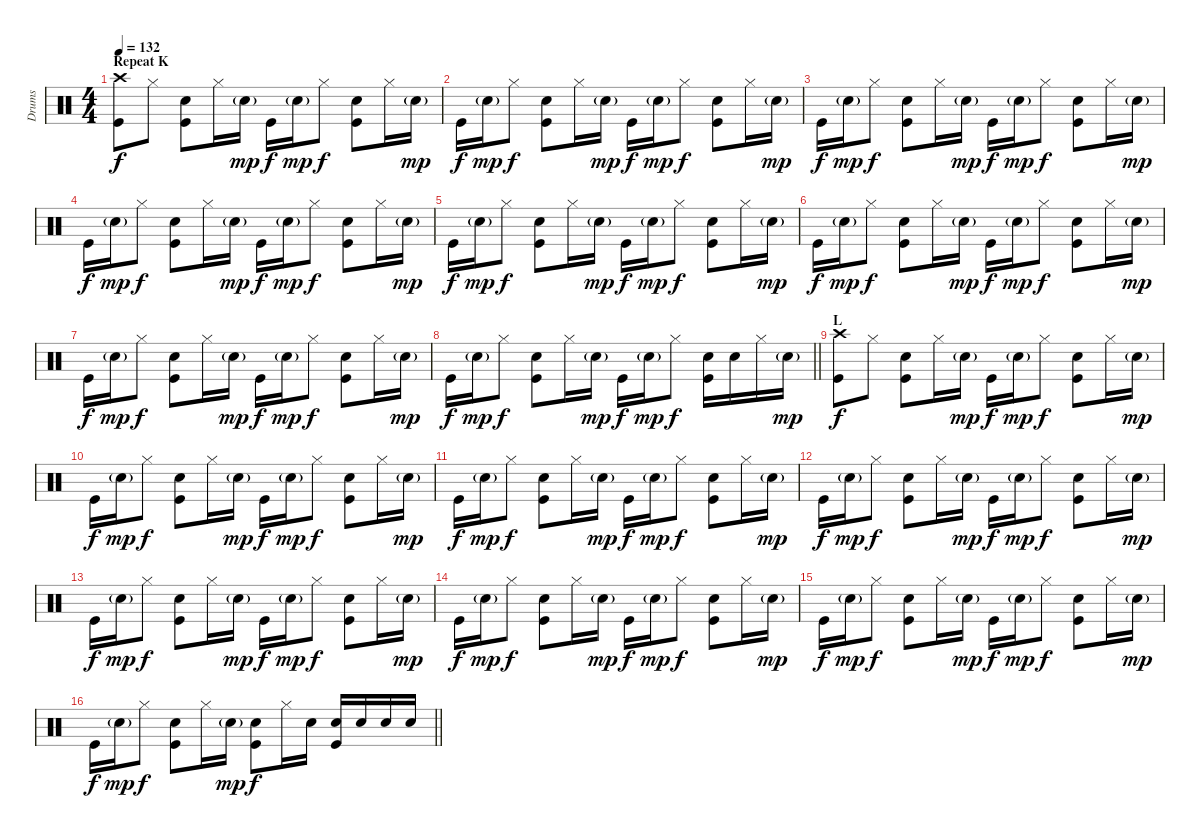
\track ("Drums" "Drums") {instrument percussion}
\staff {score}
\articulation defaults
\ts (4 4)
\section ("" "Repeat K")
\tempo 132
\clef neutral
\ks c
("Crash high (hit)" "Kick (hit)").8{dy f} "Hi-Hat (closed)".8 ("Electric Snare (hit)" "Kick (hit)").8 "Hi-Hat (closed)".16 "Electric Snare (hit)"{g}.16{dy mp} "Kick (hit)".16{dy f} "Electric Snare (hit)"{g}.16{dy mp} "Hi-Hat (closed)".8{dy f} ("Electric Snare (hit)" "Kick (hit)").8 "Hi-Hat (closed)".16 "Electric Snare (hit)"{g}.16{dy mp} |
"Kick (hit)".16{dy f} "Electric Snare (hit)"{g}.16{dy mp} "Hi-Hat (closed)".8{dy f} ("Electric Snare (hit)" "Kick (hit)").8 "Hi-Hat (closed)".16 "Electric Snare (hit)"{g}.16{dy mp} "Kick (hit)".16{dy f} "Electric Snare (hit)"{g}.16{dy mp} "Hi-Hat (closed)".8{dy f} ("Electric Snare (hit)" "Kick (hit)").8 "Hi-Hat (closed)".16 "Electric Snare (hit)"{g}.16{dy mp} |
"Kick (hit)".16{dy f} "Electric Snare (hit)"{g}.16{dy mp} "Hi-Hat (closed)".8{dy f} ("Electric Snare (hit)" "Kick (hit)").8 "Hi-Hat (closed)".16 "Electric Snare (hit)"{g}.16{dy mp} "Kick (hit)".16{dy f} "Electric Snare (hit)"{g}.16{dy mp} "Hi-Hat (closed)".8{dy f} ("Electric Snare (hit)" "Kick (hit)").8 "Hi-Hat (closed)".16 "Electric Snare (hit)"{g}.16{dy mp} |
"Kick (hit)".16{dy f} "Electric Snare (hit)"{g}.16{dy mp} "Hi-Hat (closed)".8{dy f} ("Electric Snare (hit)" "Kick (hit)").8 "Hi-Hat (closed)".16 "Electric Snare (hit)"{g}.16{dy mp} "Kick (hit)".16{dy f} "Electric Snare (hit)"{g}.16{dy mp} "Hi-Hat (closed)".8{dy f} ("Electric Snare (hit)" "Kick (hit)").8 "Hi-Hat (closed)".16 "Electric Snare (hit)"{g}.16{dy mp} |
"Kick (hit)".16{dy f} "Electric Snare (hit)"{g}.16{dy mp} "Hi-Hat (closed)".8{dy f} ("Electric Snare (hit)" "Kick (hit)").8 "Hi-Hat (closed)".16 "Electric Snare (hit)"{g}.16{dy mp} "Kick (hit)".16{dy f} "Electric Snare (hit)"{g}.16{dy mp} "Hi-Hat (closed)".8{dy f} ("Electric Snare (hit)" "Kick (hit)").8 "Hi-Hat (closed)".16 "Electric Snare (hit)"{g}.16{dy mp} |
"Kick (hit)".16{dy f} "Electric Snare (hit)"{g}.16{dy mp} "Hi-Hat (closed)".8{dy f} ("Electric Snare (hit)" "Kick (hit)").8 "Hi-Hat (closed)".16 "Electric Snare (hit)"{g}.16{dy mp} "Kick (hit)".16{dy f} "Electric Snare (hit)"{g}.16{dy mp} "Hi-Hat (closed)".8{dy f} ("Electric Snare (hit)" "Kick (hit)").8 "Hi-Hat (closed)".16 "Electric Snare (hit)"{g}.16{dy mp} |
"Kick (hit)".16{dy f} "Electric Snare (hit)"{g}.16{dy mp} "Hi-Hat (closed)".8{dy f} ("Electric Snare (hit)" "Kick (hit)").8 "Hi-Hat (closed)".16 "Electric Snare (hit)"{g}.16{dy mp} "Kick (hit)".16{dy f} "Electric Snare (hit)"{g}.16{dy mp} "Hi-Hat (closed)".8{dy f} ("Electric Snare (hit)" "Kick (hit)").8 "Hi-Hat (closed)".16 "Electric Snare (hit)"{g}.16{dy mp} |
\barLineRight lightlight "Kick (hit)".16{dy f} "Electric Snare (hit)"{g}.16{dy mp} "Hi-Hat (closed)".8{dy f}
("Electric Snare (hit)" "Kick (hit)").8 "Hi-Hat (closed)".16 "Electric Snare (hit)"{g}.16{dy mp} "Kick (hit)".16{dy f} "Electric Snare (hit)"{g}.16{dy mp} "Hi-Hat (closed)".8{dy f} ("Electric Snare (hit)" "Kick (hit)").16 "Electric Snare (hit)".16 "Hi-Hat (closed)".16 "Electric Snare (hit)"{g}.16{dy mp} |
\section ("" "L")
("Crash high (hit)" "Kick (hit)").8{dy f} "Hi-Hat (closed)".8 ("Electric Snare (hit)" "Kick (hit)").8 "Hi-Hat (closed)".16 "Electric Snare (hit)"{g}.16{dy mp} "Kick (hit)".16{dy f} "Electric Snare (hit)"{g}.16{dy mp} "Hi-Hat (closed)".8{dy f} ("Electric Snare (hit)" "Kick (hit)").8 "Hi-Hat (closed)".16 "Electric Snare (hit)"{g}.16{dy mp} |
"Kick (hit)".16{dy f} "Electric Snare (hit)"{g}.16{dy mp} "Hi-Hat (closed)".8{dy f} ("Electric Snare (hit)" "Kick (hit)").8 "Hi-Hat (closed)".16 "Electric Snare (hit)"{g}.16{dy mp} "Kick (hit)".16{dy f} "Electric Snare (hit)"{g}.16{dy mp} "Hi-Hat (closed)".8{dy f} ("Electric Snare (hit)" "Kick (hit)").8 "Hi-Hat (closed)".16 "Electric Snare (hit)"{g}.16{dy mp} |
"Kick (hit)".16{dy f} "Electric Snare (hit)"{g}.16{dy mp} "Hi-Hat (closed)".8{dy f} ("Electric Snare (hit)" "Kick (hit)").8 "Hi-Hat (closed)".16 "Electric Snare (hit)"{g}.16{dy mp} "Kick (hit)".16{dy f} "Electric Snare (hit)"{g}.16{dy mp} "Hi-Hat (closed)".8{dy f} ("Electric Snare (hit)" "Kick (hit)").8 "Hi-Hat (closed)".16 "Electric Snare (hit)"{g}.16{dy mp} |
"Kick (hit)".16{dy f} "Electric Snare (hit)"{g}.16{dy mp} "Hi-Hat (closed)".8{dy f} ("Electric Snare (hit)" "Kick (hit)").8 "Hi-Hat (closed)".16 "Electric Snare (hit)"{g}.16{dy mp} "Kick (hit)".16{dy f} "Electric Snare (hit)"{g}.16{dy mp} "Hi-Hat (closed)".8{dy f} ("Electric Snare (hit)" "Kick (hit)").8 "Hi-Hat (closed)".16 "Electric Snare (hit)"{g}.16{dy mp} |
"Kick (hit)".16{dy f} "Electric Snare (hit)"{g}.16{dy mp} "Hi-Hat (closed)".8{dy f} ("Electric Snare (hit)" "Kick (hit)").8 "Hi-Hat (closed)".16 "Electric Snare (hit)"{g}.16{dy mp} "Kick (hit)".16{dy f} "Electric Snare (hit)"{g}.16{dy mp} "Hi-Hat (closed)".8{dy f} ("Electric Snare (hit)" "Kick (hit)").8 "Hi-Hat (closed)".16 "Electric Snare (hit)"{g}.16{dy mp} |
"Kick (hit)".16{dy f} "Electric Snare (hit)"{g}.16{dy mp} "Hi-Hat (closed)".8{dy f} ("Electric Snare (hit)" "Kick (hit)").8 "Hi-Hat (closed)".16 "Electric Snare (hit)"{g}.16{dy mp} "Kick (hit)".16{dy f} "Electric Snare (hit)"{g}.16{dy mp} "Hi-Hat (closed)".8{dy f} ("Electric Snare (hit)" "Kick (hit)").8 "Hi-Hat (closed)".16 "Electric Snare (hit)"{g}.16{dy mp} |
"Kick (hit)".16{dy f} "Electric Snare (hit)"{g}.16{dy mp} "Hi-Hat (closed)".8{dy f} ("Electric Snare (hit)" "Kick (hit)").8 "Hi-Hat (closed)".16 "Electric Snare (hit)"{g}.16{dy mp} "Kick (hit)".16{dy f} "Electric Snare (hit)"{g}.16{dy mp} "Hi-Hat (closed)".8{dy f} ("Electric Snare (hit)" "Kick (hit)").8 "Hi-Hat (closed)".16 "Electric Snare (hit)"{g}.16{dy mp} |
\barLineRight lightlight "Kick (hit)".16{dy f} "Electric Snare (hit)"{g}.16{dy mp} "Hi-Hat (closed)".8{dy f}
("Electric Snare (hit)" "Kick (hit)").8 "Hi-Hat (closed)".16 "Electric Snare (hit)"{g}.16{dy mp} ("Electric Snare (hit)" "Kick (hit)").8{dy f} "Hi-Hat (closed)".16 "Electric Snare (hit)".16 ("Electric Snare (hit)" "Kick (hit)").16 "Electric Snare (hit)".16 "Electric Snare (hit)".16 "Electric Snare (hit)".16
